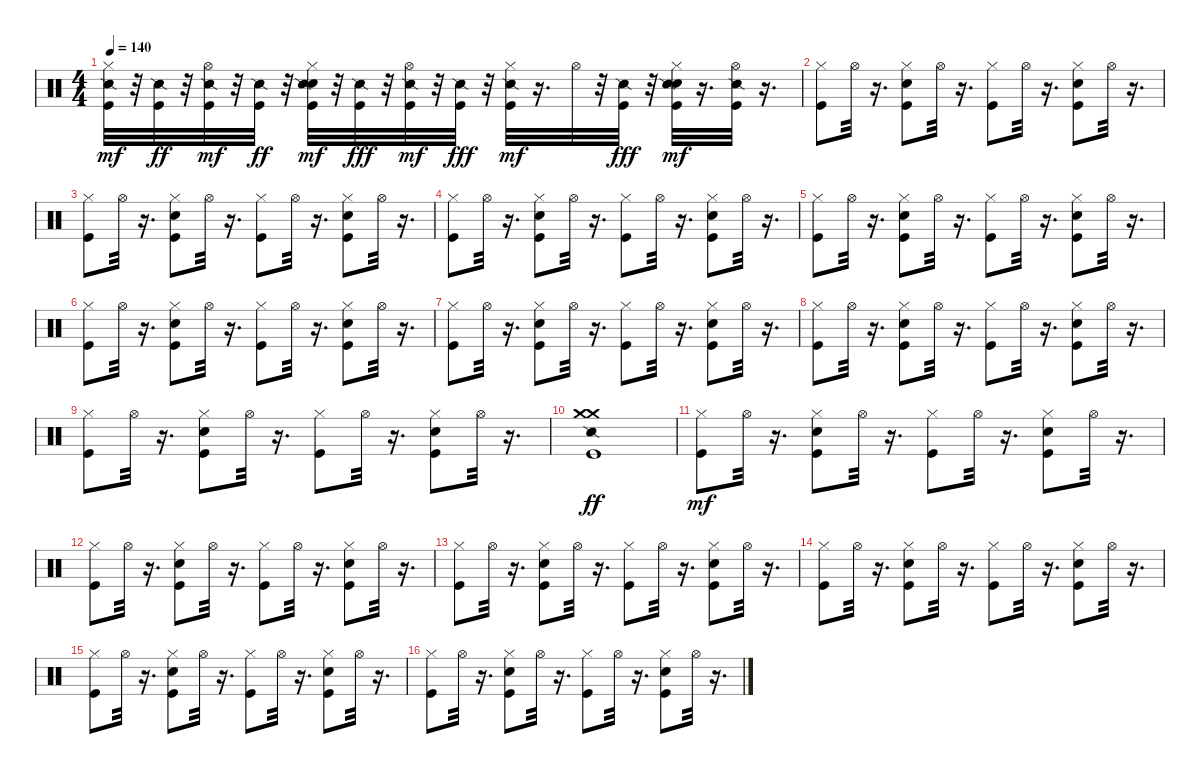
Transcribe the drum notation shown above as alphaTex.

\track "" {instrument percussion}
\staff {score}
\articulation defaults
\ts (4 4)
\tempo 140
\clef neutral
\ks c
("Kick (hit)" "Hi-Hat (closed)" "Snare (side stick) 2").32{dy mf} r.32 ("Kick (hit)" "Snare (side stick) 2").32{dy ff} r.32 ("Kick (hit)" "Hi-Hat (open)" "Snare (side stick) 2").32{dy mf} r.32 ("Kick (hit)" "Snare (side stick) 2").32{dy ff} r.32 ("Kick (hit)" "Hand Clap (hit)" "Hi-Hat (closed)" "Snare (side stick) 2").32{dy mf} r.32 ("Kick (hit)" "Snare (side stick) 2").32{dy fff} r.32 ("Kick (hit)" "Hi-Hat (open)" "Snare (side stick) 2").32{dy mf} r.32 ("Kick (hit)" "Snare (side stick) 2").32{dy fff} r.32 ("Kick (hit)" "Hi-Hat (closed)" "Snare (side stick) 2").32{dy mf} r.16{d} "Hi-Hat (open)".32 r.32 ("Kick (hit)" "Snare (side stick) 2").32{dy fff} r.32 ("Kick (hit)" "Hi-Hat (closed)" "Hand Clap (hit)" "Snare (side stick) 2").32{dy mf} r.16{d} ("Kick (hit)" "Hi-Hat (open)" "Snare (side stick) 2").32 r.16{d} |
("Kick (hit)" "Hi-Hat (closed)").8 "Hi-Hat (open)".32 r.16{d} ("Kick (hit)" "Hi-Hat (closed)" "Hand Clap (hit)").8 "Hi-Hat (open)".32 r.16{d} ("Kick (hit)" "Hi-Hat (closed)").8 "Hi-Hat (open)".32 r.16{d} ("Kick (hit)" "Hi-Hat (closed)" "Hand Clap (hit)").8 "Hi-Hat (open)".32 r.16{d} |
("Kick (hit)" "Hi-Hat (closed)").8 "Hi-Hat (open)".32 r.16{d} ("Kick (hit)" "Hand Clap (hit)" "Hi-Hat (closed)").8 "Hi-Hat (open)".32 r.16{d} ("Kick (hit)" "Hi-Hat (closed)").8 "Hi-Hat (open)".32 r.16{d} ("Kick (hit)" "Hi-Hat (closed)" "Hand Clap (hit)").8 "Hi-Hat (open)".32 r.16{d} |
("Kick (hit)" "Hi-Hat (closed)").8 "Hi-Hat (open)".32 r.16{d} ("Kick (hit)" "Hi-Hat (closed)" "Hand Clap (hit)").8 "Hi-Hat (open)".32 r.16{d} ("Kick (hit)" "Hi-Hat (closed)").8 "Hi-Hat (open)".32 r.16{d} ("Kick (hit)" "Hand Clap (hit)" "Hi-Hat (closed)").8 "Hi-Hat (open)".32 r.16{d} |
("Kick (hit)" "Hi-Hat (closed)").8 "Hi-Hat (open)".32 r.16{d} ("Kick (hit)" "Hi-Hat (closed)" "Hand Clap (hit)").8 "Hi-Hat (open)".32 r.16{d} ("Kick (hit)" "Hi-Hat (closed)").8 "Hi-Hat (open)".32 r.16{d} ("Kick (hit)" "Hi-Hat (closed)" "Hand Clap (hit)").8 "Hi-Hat (open)".32 r.16{d} |
("Kick (hit)" "Hi-Hat (closed)").8 "Hi-Hat (open)".32 r.16{d} ("Kick (hit)" "Hand Clap (hit)" "Hi-Hat (closed)").8 "Hi-Hat (open)".32 r.16{d} ("Kick (hit)" "Hi-Hat (closed)").8 "Hi-Hat (open)".32 r.16{d} ("Kick (hit)" "Hi-Hat (closed)" "Hand Clap (hit)").8 "Hi-Hat (open)".32 r.16{d} |
("Kick (hit)" "Hi-Hat (closed)").8 "Hi-Hat (open)".32 r.16{d} ("Kick (hit)" "Hand Clap (hit)" "Hi-Hat (closed)").8 "Hi-Hat (open)".32 r.16{d} ("Kick (hit)" "Hi-Hat (closed)").8 "Hi-Hat (open)".32 r.16{d} ("Kick (hit)" "Hand Clap (hit)" "Hi-Hat (closed)").8 "Hi-Hat (open)".32 r.16{d} |
("Kick (hit)" "Hi-Hat (closed)").8 "Hi-Hat (open)".32 r.16{d} ("Kick (hit)" "Hi-Hat (closed)" "Hand Clap (hit)").8 "Hi-Hat (open)".32 r.16{d} ("Kick (hit)" "Hi-Hat (closed)").8 "Hi-Hat (open)".32 r.16{d} ("Kick (hit)" "Hand Clap (hit)" "Hi-Hat (closed)").8 "Hi-Hat (open)".32 r.16{d} |
("Kick (hit)" "Hi-Hat (closed)").8 "Hi-Hat (open)".32 r.16{d} ("Kick (hit)" "Hi-Hat (closed)" "Hand Clap (hit)").8 "Hi-Hat (open)".32 r.16{d} ("Kick (hit)" "Hi-Hat (closed)").8 "Hi-Hat (open)".32 r.16{d} ("Kick (hit)" "Hi-Hat (closed)" "Hand Clap (hit)").8 "Hi-Hat (open)".32 r.16{d} |
("Kick (hit)" "Snare (side stick) 2" "Crash medium (hit)" "Crash medium (hit)").1{dy ff} |
("Kick (hit)" "Hi-Hat (closed)").8{dy mf} "Hi-Hat (open)".32 r.16{d} ("Kick (hit)" "Hi-Hat (closed)" "Hand Clap (hit)").8 "Hi-Hat (open)".32 r.16{d} ("Kick (hit)" "Hi-Hat (closed)").8 "Hi-Hat (open)".32 r.16{d} ("Kick (hit)" "Hi-Hat (closed)" "Hand Clap (hit)").8 "Hi-Hat (open)".32 r.16{d} |
("Kick (hit)" "Hi-Hat (closed)").8 "Hi-Hat (open)".32 r.16{d} ("Kick (hit)" "Hand Clap (hit)" "Hi-Hat (closed)").8 "Hi-Hat (open)".32 r.16{d} ("Kick (hit)" "Hi-Hat (closed)").8 "Hi-Hat (open)".32 r.16{d} ("Kick (hit)" "Hi-Hat (closed)" "Hand Clap (hit)").8 "Hi-Hat (open)".32 r.16{d} |
("Kick (hit)" "Hi-Hat (closed)").8 "Hi-Hat (open)".32 r.16{d} ("Kick (hit)" "Hand Clap (hit)" "Hi-Hat (closed)").8 "Hi-Hat (open)".32 r.16{d} ("Kick (hit)" "Hi-Hat (closed)").8 "Hi-Hat (open)".32 r.16{d} ("Kick (hit)" "Hi-Hat (closed)" "Hand Clap (hit)").8 "Hi-Hat (open)".32 r.16{d} |
("Kick (hit)" "Hi-Hat (closed)").8 "Hi-Hat (open)".32 r.16{d} ("Kick (hit)" "Hi-Hat (closed)" "Hand Clap (hit)").8 "Hi-Hat (open)".32 r.16{d} ("Kick (hit)" "Hi-Hat (closed)").8 "Hi-Hat (open)".32 r.16{d} ("Kick (hit)" "Hand Clap (hit)" "Hi-Hat (closed)").8 "Hi-Hat (open)".32 r.16{d} |
("Kick (hit)" "Hi-Hat (closed)").8 "Hi-Hat (open)".32 r.16{d} ("Kick (hit)" "Hi-Hat (closed)" "Hand Clap (hit)").8 "Hi-Hat (open)".32 r.16{d} ("Kick (hit)" "Hi-Hat (closed)").8 "Hi-Hat (open)".32 r.16{d} ("Kick (hit)" "Hand Clap (hit)" "Hi-Hat (closed)").8 "Hi-Hat (open)".32 r.16{d} |
("Kick (hit)" "Hi-Hat (closed)").8 "Hi-Hat (open)".32 r.16{d} ("Kick (hit)" "Hand Clap (hit)" "Hi-Hat (closed)").8 "Hi-Hat (open)".32 r.16{d} ("Kick (hit)" "Hi-Hat (closed)").8 "Hi-Hat (open)".32 r.16{d} ("Kick (hit)" "Hi-Hat (closed)" "Hand Clap (hit)").8 "Hi-Hat (open)".32 r.16{d}
